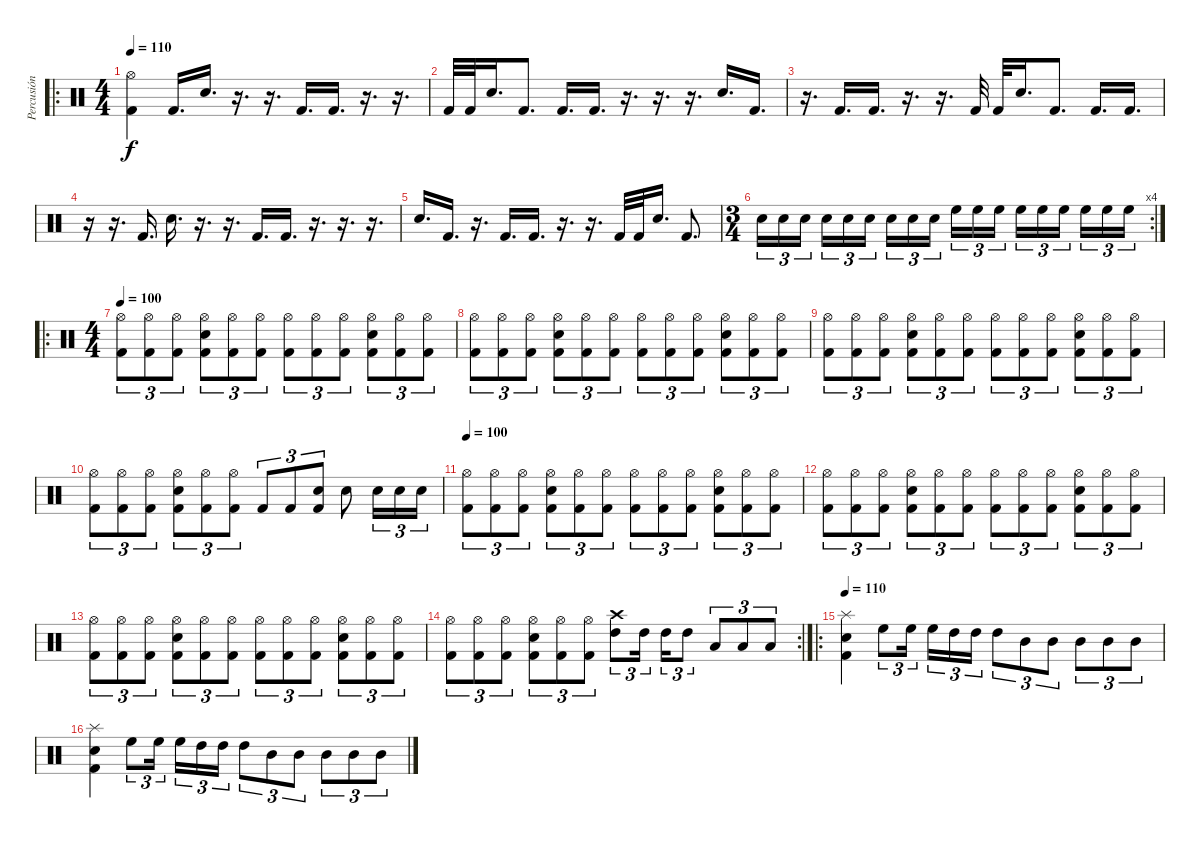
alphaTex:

\track ("Percusión" "Percusión") {instrument percussion}
\staff {score}
\articulation defaults
\ro
\ts (4 4)
\tempo 110
\clef neutral
\ks c
("Hi-Hat (open)" "Kick (hit) 2").4{dy f} "Kick (hit) 2".16{d} "Snare (hit) 2".16{d} r.16{d} r.16{d} "Kick (hit) 2".16{d} "Kick (hit) 2".16{d} r.16{d} r.16{d} |
"Kick (hit) 2".32 "Kick (hit) 2".32 "Snare (hit) 2".16{d} "Kick (hit) 2".8{d} "Kick (hit) 2".16{d} "Kick (hit) 2".16{d} r.16{d} r.16{d} r.16{d} "Snare (hit) 2".16{d} "Kick (hit) 2".16{d} |
r.16{d} "Kick (hit) 2".16{d} "Kick (hit) 2".16{d} r.16{d} r.16{d} "Kick (hit) 2".32 "Kick (hit) 2".32 "Snare (hit) 2".16{d} "Kick (hit) 2".8{d} "Kick (hit) 2".16{d} "Kick (hit) 2".16{d} |
r.16 r.16{d} "Kick (hit) 2".16{d} "Snare (hit) 2".16{d} r.16{d} r.16{d} "Kick (hit) 2".16{d} "Kick (hit) 2".16{d} r.16{d} r.16{d} r.16{d} |
"Snare (hit) 2".16{d} "Kick (hit) 2".16{d} r.16{d} "Kick (hit) 2".16{d} "Kick (hit) 2".16{d} r.16{d} r.16{d} "Kick (hit) 2".32 "Kick (hit) 2".32 "Snare (hit) 2".16{d} "Kick (hit) 2".8{d} |
\rc 4
\ts (3 4)
"Snare (hit) 2".16{tu (3 2)} "Snare (hit) 2".16{tu (3 2)} "Snare (hit) 2".16{tu (3 2) beam splitsecondary} "Snare (hit) 2".16{tu (3 2)} "Snare (hit) 2".16{tu (3 2)} "Snare (hit) 2".16{tu (3 2)} "Snare (hit) 2".16{tu (3 2)} "Snare (hit) 2".16{tu (3 2)} "Snare (hit) 2".16{tu (3 2) beam splitsecondary} "High Floor Tom (hit)".16{tu (3 2)} "High Floor Tom (hit)".16{tu (3 2)} "High Floor Tom (hit)".16{tu (3 2)} "High Floor Tom (hit)".16{tu (3 2)} "High Floor Tom (hit)".16{tu (3 2)} "High Floor Tom (hit)".16{tu (3 2) beam splitsecondary} "High Floor Tom (hit)".16{tu (3 2)} "High Floor Tom (hit)".16{tu (3 2)} "High Floor Tom (hit)".16{tu (3 2)} |
\ro
\ts (4 4)
\tempo 100
("Hi-Hat (open)" "Kick (hit) 2").8{tu (3 2)} ("Hi-Hat (open)" "Kick (hit) 2").8{tu (3 2)} ("Hi-Hat (open)" "Kick (hit) 2").8{tu (3 2)} ("Hi-Hat (open)" "Snare (hit) 2" "Kick (hit) 2").8{tu (3 2)} ("Hi-Hat (open)" "Kick (hit) 2").8{tu (3 2)} ("Hi-Hat (open)" "Kick (hit) 2").8{tu (3 2)} ("Hi-Hat (open)" "Kick (hit) 2").8{tu (3 2)} ("Hi-Hat (open)" "Kick (hit) 2").8{tu (3 2)} ("Hi-Hat (open)" "Kick (hit) 2").8{tu (3 2)} ("Hi-Hat (open)" "Snare (hit) 2" "Kick (hit) 2").8{tu (3 2)} ("Hi-Hat (open)" "Kick (hit) 2").8{tu (3 2)} ("Hi-Hat (open)" "Kick (hit) 2").8{tu (3 2)} |
("Hi-Hat (open)" "Kick (hit) 2").8{tu (3 2)} ("Hi-Hat (open)" "Kick (hit) 2").8{tu (3 2)} ("Hi-Hat (open)" "Kick (hit) 2").8{tu (3 2)} ("Hi-Hat (open)" "Snare (hit) 2" "Kick (hit) 2").8{tu (3 2)} ("Hi-Hat (open)" "Kick (hit) 2").8{tu (3 2)} ("Hi-Hat (open)" "Kick (hit) 2").8{tu (3 2)} ("Hi-Hat (open)" "Kick (hit) 2").8{tu (3 2)} ("Hi-Hat (open)" "Kick (hit) 2").8{tu (3 2)} ("Hi-Hat (open)" "Kick (hit) 2").8{tu (3 2)} ("Hi-Hat (open)" "Snare (hit) 2" "Kick (hit) 2").8{tu (3 2)} ("Hi-Hat (open)" "Kick (hit) 2").8{tu (3 2)} ("Hi-Hat (open)" "Kick (hit) 2").8{tu (3 2)} |
("Hi-Hat (open)" "Kick (hit) 2").8{tu (3 2)} ("Hi-Hat (open)" "Kick (hit) 2").8{tu (3 2)} ("Hi-Hat (open)" "Kick (hit) 2").8{tu (3 2)} ("Hi-Hat (open)" "Snare (hit) 2" "Kick (hit) 2").8{tu (3 2)} ("Hi-Hat (open)" "Kick (hit) 2").8{tu (3 2)} ("Hi-Hat (open)" "Kick (hit) 2").8{tu (3 2)} ("Hi-Hat (open)" "Kick (hit) 2").8{tu (3 2)} ("Hi-Hat (open)" "Kick (hit) 2").8{tu (3 2)} ("Hi-Hat (open)" "Kick (hit) 2").8{tu (3 2)} ("Hi-Hat (open)" "Snare (hit) 2" "Kick (hit) 2").8{tu (3 2)} ("Hi-Hat (open)" "Kick (hit) 2").8{tu (3 2)} ("Hi-Hat (open)" "Kick (hit) 2").8{tu (3 2)} |
("Hi-Hat (open)" "Kick (hit) 2").8{tu (3 2)} ("Hi-Hat (open)" "Kick (hit) 2").8{tu (3 2)} ("Hi-Hat (open)" "Kick (hit) 2").8{tu (3 2)} ("Hi-Hat (open)" "Snare (hit) 2" "Kick (hit) 2").8{tu (3 2)} ("Hi-Hat (open)" "Kick (hit) 2").8{tu (3 2)} ("Hi-Hat (open)" "Kick (hit) 2").8{tu (3 2)} "Kick (hit) 2".8{tu (3 2)} "Kick (hit) 2".8{tu (3 2)} ("Snare (hit) 2" "Kick (hit) 2").8{tu (3 2)} "Snare (hit) 2".8 "Snare (hit) 2".16{tu (3 2)} "Snare (hit) 2".16{tu (3 2)} "Snare (hit) 2".16{tu (3 2)} |
\tempo 100
("Hi-Hat (open)" "Kick (hit) 2").8{tu (3 2)} ("Hi-Hat (open)" "Kick (hit) 2").8{tu (3 2)} ("Hi-Hat (open)" "Kick (hit) 2").8{tu (3 2)} ("Hi-Hat (open)" "Snare (hit) 2" "Kick (hit) 2").8{tu (3 2)} ("Hi-Hat (open)" "Kick (hit) 2").8{tu (3 2)} ("Hi-Hat (open)" "Kick (hit) 2").8{tu (3 2)} ("Hi-Hat (open)" "Kick (hit) 2").8{tu (3 2)} ("Hi-Hat (open)" "Kick (hit) 2").8{tu (3 2)} ("Hi-Hat (open)" "Kick (hit) 2").8{tu (3 2)} ("Hi-Hat (open)" "Snare (hit) 2" "Kick (hit) 2").8{tu (3 2)} ("Hi-Hat (open)" "Kick (hit) 2").8{tu (3 2)} ("Hi-Hat (open)" "Kick (hit) 2").8{tu (3 2)} |
("Hi-Hat (open)" "Kick (hit) 2").8{tu (3 2)} ("Hi-Hat (open)" "Kick (hit) 2").8{tu (3 2)} ("Hi-Hat (open)" "Kick (hit) 2").8{tu (3 2)} ("Hi-Hat (open)" "Snare (hit) 2" "Kick (hit) 2").8{tu (3 2)} ("Hi-Hat (open)" "Kick (hit) 2").8{tu (3 2)} ("Hi-Hat (open)" "Kick (hit) 2").8{tu (3 2)} ("Hi-Hat (open)" "Kick (hit) 2").8{tu (3 2)} ("Hi-Hat (open)" "Kick (hit) 2").8{tu (3 2)} ("Hi-Hat (open)" "Kick (hit) 2").8{tu (3 2)} ("Hi-Hat (open)" "Snare (hit) 2" "Kick (hit) 2").8{tu (3 2)} ("Hi-Hat (open)" "Kick (hit) 2").8{tu (3 2)} ("Hi-Hat (open)" "Kick (hit) 2").8{tu (3 2)} |
("Hi-Hat (open)" "Kick (hit) 2").8{tu (3 2)} ("Hi-Hat (open)" "Kick (hit) 2").8{tu (3 2)} ("Hi-Hat (open)" "Kick (hit) 2").8{tu (3 2)} ("Hi-Hat (open)" "Snare (hit) 2" "Kick (hit) 2").8{tu (3 2)} ("Hi-Hat (open)" "Kick (hit) 2").8{tu (3 2)} ("Hi-Hat (open)" "Kick (hit) 2").8{tu (3 2)} ("Hi-Hat (open)" "Kick (hit) 2").8{tu (3 2)} ("Hi-Hat (open)" "Kick (hit) 2").8{tu (3 2)} ("Hi-Hat (open)" "Kick (hit) 2").8{tu (3 2)} ("Hi-Hat (open)" "Snare (hit) 2" "Kick (hit) 2").8{tu (3 2)} ("Hi-Hat (open)" "Kick (hit) 2").8{tu (3 2)} ("Hi-Hat (open)" "Kick (hit) 2").8{tu (3 2)} |
\rc 2
("Hi-Hat (open)" "Kick (hit) 2").8{tu (3 2)} ("Hi-Hat (open)" "Kick (hit) 2").8{tu (3 2)} ("Hi-Hat (open)" "Kick (hit) 2").8{tu (3 2)} ("Hi-Hat (open)" "Snare (hit) 2" "Kick (hit) 2").8{tu (3 2)} ("Hi-Hat (open)" "Kick (hit) 2").8{tu (3 2)} ("Hi-Hat (open)" "Kick (hit) 2").8{tu (3 2)} ("Crash high (hit)" "High Tom (hit)").8{tu (3 2)} "High Tom (hit)".16{tu (3 2) beam splitsecondary} "High Tom (hit)".16{tu (3 2)} "High Tom (hit)".8{tu (3 2)} "Low Tom (hit)".8{tu (3 2)} "Low Tom (hit)".8{tu (3 2)} "Low Floor Tom (hit)".8{tu (3 2)} |
\ro
\tempo 110
("Splash (hit)" "Snare (hit) 2" "Kick (hit) 2").4 "High Floor Tom (hit)".8{tu (3 2)} "High Floor Tom (hit)".16{tu (3 2) beam splitsecondary} "High Floor Tom (hit)".16{tu (3 2)} "High Tom (hit)".16{tu (3 2)} "High Tom (hit)".16{tu (3 2)} "High Tom (hit)".8{tu (3 2)} "Mid Tom (hit)".8{tu (3 2)} "Mid Tom (hit)".8{tu (3 2)} "Mid Tom (hit)".8{tu (3 2)} "Mid Tom (hit)".8{tu (3 2)} "Mid Tom (hit)".8{tu (3 2)} |
("Splash (hit)" "Snare (hit) 2" "Kick (hit) 2").4 "High Floor Tom (hit)".8{tu (3 2)} "High Floor Tom (hit)".16{tu (3 2) beam splitsecondary} "High Floor Tom (hit)".16{tu (3 2)} "High Tom (hit)".16{tu (3 2)} "High Tom (hit)".16{tu (3 2)} "High Tom (hit)".8{tu (3 2)} "Mid Tom (hit)".8{tu (3 2)} "Mid Tom (hit)".8{tu (3 2)} "Mid Tom (hit)".8{tu (3 2)} "Mid Tom (hit)".8{tu (3 2)} "Mid Tom (hit)".8{tu (3 2)}
